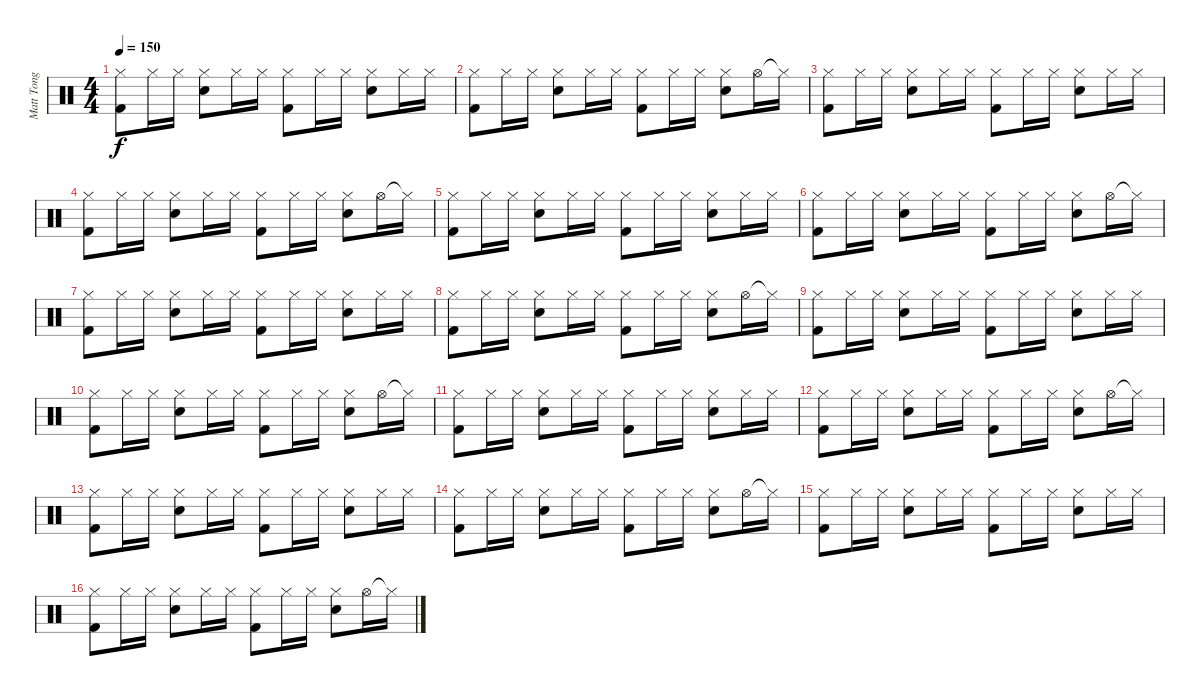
\track ("Matt Tong" "Matt Tong") {instrument percussion}
\staff {score}
\articulation defaults
\ts (4 4)
\tempo 150
\clef neutral
\ks c
("Hi-Hat (closed)" "Kick (hit) 2").8{dy f} "Hi-Hat (closed)".16 "Hi-Hat (closed)".16 ("Hi-Hat (closed)" "Electric Snare (hit)").8 "Hi-Hat (closed)".16 "Hi-Hat (closed)".16 ("Hi-Hat (closed)" "Kick (hit) 2").8 "Hi-Hat (closed)".16 "Hi-Hat (closed)".16 ("Hi-Hat (closed)" "Electric Snare (hit)").8 "Hi-Hat (closed)".16 "Hi-Hat (closed)".16 |
("Hi-Hat (closed)" "Kick (hit) 2").8 "Hi-Hat (closed)".16 "Hi-Hat (closed)".16 ("Hi-Hat (closed)" "Electric Snare (hit)").8 "Hi-Hat (closed)".16 "Hi-Hat (closed)".16 ("Hi-Hat (closed)" "Kick (hit) 2").8 "Hi-Hat (closed)".16 "Hi-Hat (closed)".16 ("Hi-Hat (closed)" "Electric Snare (hit)").8 "Hi-Hat (open)".16 "Hi-Hat (closed)"{t}.16 |
("Hi-Hat (closed)" "Kick (hit) 2").8 "Hi-Hat (closed)".16 "Hi-Hat (closed)".16 ("Hi-Hat (closed)" "Electric Snare (hit)").8 "Hi-Hat (closed)".16 "Hi-Hat (closed)".16 ("Hi-Hat (closed)" "Kick (hit) 2").8 "Hi-Hat (closed)".16 "Hi-Hat (closed)".16 ("Hi-Hat (closed)" "Electric Snare (hit)").8 "Hi-Hat (closed)".16 "Hi-Hat (closed)".16 |
("Hi-Hat (closed)" "Kick (hit) 2").8 "Hi-Hat (closed)".16 "Hi-Hat (closed)".16 ("Hi-Hat (closed)" "Electric Snare (hit)").8 "Hi-Hat (closed)".16 "Hi-Hat (closed)".16 ("Hi-Hat (closed)" "Kick (hit) 2").8 "Hi-Hat (closed)".16 "Hi-Hat (closed)".16 ("Hi-Hat (closed)" "Electric Snare (hit)").8 "Hi-Hat (open)".16 "Hi-Hat (closed)"{t}.16 |
("Hi-Hat (closed)" "Kick (hit) 2").8 "Hi-Hat (closed)".16 "Hi-Hat (closed)".16 ("Hi-Hat (closed)" "Electric Snare (hit)").8 "Hi-Hat (closed)".16 "Hi-Hat (closed)".16 ("Hi-Hat (closed)" "Kick (hit) 2").8 "Hi-Hat (closed)".16 "Hi-Hat (closed)".16 ("Hi-Hat (closed)" "Electric Snare (hit)").8 "Hi-Hat (closed)".16 "Hi-Hat (closed)".16 |
("Hi-Hat (closed)" "Kick (hit) 2").8 "Hi-Hat (closed)".16 "Hi-Hat (closed)".16 ("Hi-Hat (closed)" "Electric Snare (hit)").8 "Hi-Hat (closed)".16 "Hi-Hat (closed)".16 ("Hi-Hat (closed)" "Kick (hit) 2").8 "Hi-Hat (closed)".16 "Hi-Hat (closed)".16 ("Hi-Hat (closed)" "Electric Snare (hit)").8 "Hi-Hat (open)".16 "Hi-Hat (closed)"{t}.16 |
("Hi-Hat (closed)" "Kick (hit) 2").8 "Hi-Hat (closed)".16 "Hi-Hat (closed)".16 ("Hi-Hat (closed)" "Electric Snare (hit)").8 "Hi-Hat (closed)".16 "Hi-Hat (closed)".16 ("Hi-Hat (closed)" "Kick (hit) 2").8 "Hi-Hat (closed)".16 "Hi-Hat (closed)".16 ("Hi-Hat (closed)" "Electric Snare (hit)").8 "Hi-Hat (closed)".16 "Hi-Hat (closed)".16 |
("Hi-Hat (closed)" "Kick (hit) 2").8 "Hi-Hat (closed)".16 "Hi-Hat (closed)".16 ("Hi-Hat (closed)" "Electric Snare (hit)").8 "Hi-Hat (closed)".16 "Hi-Hat (closed)".16 ("Hi-Hat (closed)" "Kick (hit) 2").8 "Hi-Hat (closed)".16 "Hi-Hat (closed)".16 ("Hi-Hat (closed)" "Electric Snare (hit)").8 "Hi-Hat (open)".16 "Hi-Hat (closed)"{t}.16 |
("Hi-Hat (closed)" "Kick (hit) 2").8 "Hi-Hat (closed)".16 "Hi-Hat (closed)".16 ("Hi-Hat (closed)" "Electric Snare (hit)").8 "Hi-Hat (closed)".16 "Hi-Hat (closed)".16 ("Hi-Hat (closed)" "Kick (hit) 2").8 "Hi-Hat (closed)".16 "Hi-Hat (closed)".16 ("Hi-Hat (closed)" "Electric Snare (hit)").8 "Hi-Hat (closed)".16 "Hi-Hat (closed)".16 |
("Hi-Hat (closed)" "Kick (hit) 2").8 "Hi-Hat (closed)".16 "Hi-Hat (closed)".16 ("Hi-Hat (closed)" "Electric Snare (hit)").8 "Hi-Hat (closed)".16 "Hi-Hat (closed)".16 ("Hi-Hat (closed)" "Kick (hit) 2").8 "Hi-Hat (closed)".16 "Hi-Hat (closed)".16 ("Hi-Hat (closed)" "Electric Snare (hit)").8 "Hi-Hat (open)".16 "Hi-Hat (closed)"{t}.16 |
("Hi-Hat (closed)" "Kick (hit) 2").8 "Hi-Hat (closed)".16 "Hi-Hat (closed)".16 ("Hi-Hat (closed)" "Electric Snare (hit)").8 "Hi-Hat (closed)".16 "Hi-Hat (closed)".16 ("Hi-Hat (closed)" "Kick (hit) 2").8 "Hi-Hat (closed)".16 "Hi-Hat (closed)".16 ("Hi-Hat (closed)" "Electric Snare (hit)").8 "Hi-Hat (closed)".16 "Hi-Hat (closed)".16 |
("Hi-Hat (closed)" "Kick (hit) 2").8 "Hi-Hat (closed)".16 "Hi-Hat (closed)".16 ("Hi-Hat (closed)" "Electric Snare (hit)").8 "Hi-Hat (closed)".16 "Hi-Hat (closed)".16 ("Hi-Hat (closed)" "Kick (hit) 2").8 "Hi-Hat (closed)".16 "Hi-Hat (closed)".16 ("Hi-Hat (closed)" "Electric Snare (hit)").8 "Hi-Hat (open)".16 "Hi-Hat (closed)"{t}.16 |
("Hi-Hat (closed)" "Kick (hit) 2").8 "Hi-Hat (closed)".16 "Hi-Hat (closed)".16 ("Hi-Hat (closed)" "Electric Snare (hit)").8 "Hi-Hat (closed)".16 "Hi-Hat (closed)".16 ("Hi-Hat (closed)" "Kick (hit) 2").8 "Hi-Hat (closed)".16 "Hi-Hat (closed)".16 ("Hi-Hat (closed)" "Electric Snare (hit)").8 "Hi-Hat (closed)".16 "Hi-Hat (closed)".16 |
("Hi-Hat (closed)" "Kick (hit) 2").8 "Hi-Hat (closed)".16 "Hi-Hat (closed)".16 ("Hi-Hat (closed)" "Electric Snare (hit)").8 "Hi-Hat (closed)".16 "Hi-Hat (closed)".16 ("Hi-Hat (closed)" "Kick (hit) 2").8 "Hi-Hat (closed)".16 "Hi-Hat (closed)".16 ("Hi-Hat (closed)" "Electric Snare (hit)").8 "Hi-Hat (open)".16 "Hi-Hat (closed)"{t}.16 |
("Hi-Hat (closed)" "Kick (hit) 2").8 "Hi-Hat (closed)".16 "Hi-Hat (closed)".16 ("Hi-Hat (closed)" "Electric Snare (hit)").8 "Hi-Hat (closed)".16 "Hi-Hat (closed)".16 ("Hi-Hat (closed)" "Kick (hit) 2").8 "Hi-Hat (closed)".16 "Hi-Hat (closed)".16 ("Hi-Hat (closed)" "Electric Snare (hit)").8 "Hi-Hat (closed)".16 "Hi-Hat (closed)".16 |
("Hi-Hat (closed)" "Kick (hit) 2").8 "Hi-Hat (closed)".16 "Hi-Hat (closed)".16 ("Hi-Hat (closed)" "Electric Snare (hit)").8 "Hi-Hat (closed)".16 "Hi-Hat (closed)".16 ("Hi-Hat (closed)" "Kick (hit) 2").8 "Hi-Hat (closed)".16 "Hi-Hat (closed)".16 ("Hi-Hat (closed)" "Electric Snare (hit)").8 "Hi-Hat (open)".16 "Hi-Hat (closed)"{t}.16
